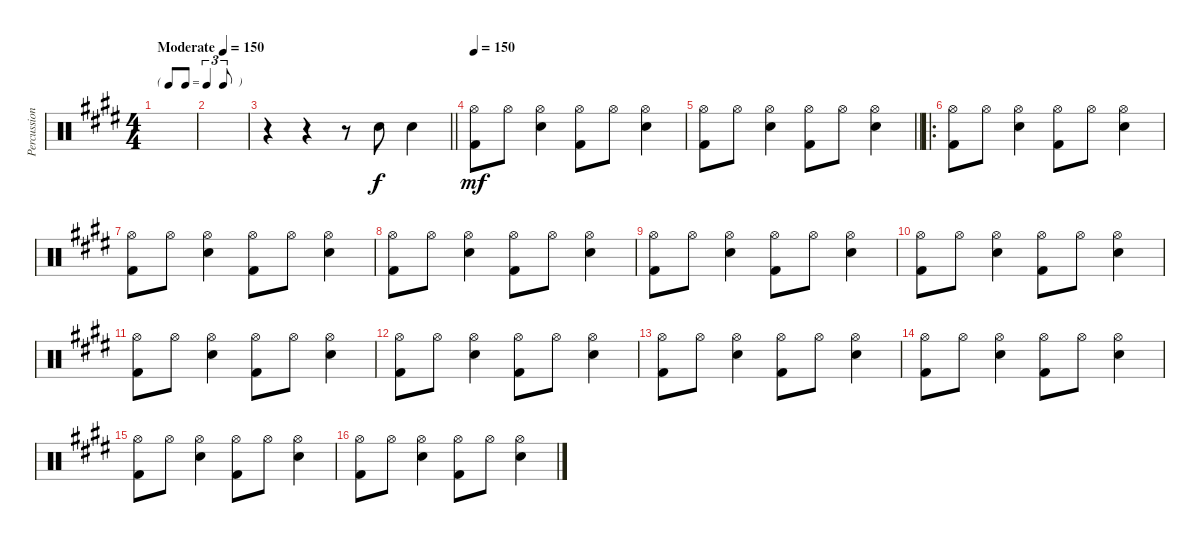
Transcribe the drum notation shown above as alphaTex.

\track ("Percussion" "Percussion") {instrument percussion}
\staff {score}
\articulation defaults
\ts (4 4)
\tf triplet8th
\tempo (150 "Moderate")
\tempo 156
\tempo (150 "Moderate")
\clef neutral
\ks e
|
|
\barLineRight lightlight
r.4 r.4 r.8 "Snare (hit) 2".8 "Snare (hit) 2".4 |
\tempo 150
("Hi-Hat (open)" "Kick (hit) 2").8{dy mf} "Hi-Hat (open)".8 ("Hi-Hat (open)" "Snare (hit) 2").4 ("Hi-Hat (open)" "Kick (hit) 2").8 "Hi-Hat (open)".8 ("Hi-Hat (open)" "Snare (hit) 2").4 |
\barLineRight lightlight
("Hi-Hat (open)" "Kick (hit) 2").8 "Hi-Hat (open)".8 ("Hi-Hat (open)" "Snare (hit) 2").4 ("Hi-Hat (open)" "Kick (hit) 2").8 "Hi-Hat (open)".8 ("Hi-Hat (open)" "Snare (hit) 2").4 |
\ro
("Hi-Hat (open)" "Kick (hit) 2").8 "Hi-Hat (open)".8 ("Hi-Hat (open)" "Snare (hit) 2").4 ("Hi-Hat (open)" "Kick (hit) 2").8 "Hi-Hat (open)".8 ("Hi-Hat (open)" "Snare (hit) 2").4 |
("Hi-Hat (open)" "Kick (hit) 2").8 "Hi-Hat (open)".8 ("Hi-Hat (open)" "Snare (hit) 2").4 ("Hi-Hat (open)" "Kick (hit) 2").8 "Hi-Hat (open)".8 ("Hi-Hat (open)" "Snare (hit) 2").4 |
("Hi-Hat (open)" "Kick (hit) 2").8 "Hi-Hat (open)".8 ("Hi-Hat (open)" "Snare (hit) 2").4 ("Hi-Hat (open)" "Kick (hit) 2").8 "Hi-Hat (open)".8 ("Hi-Hat (open)" "Snare (hit) 2").4 |
("Hi-Hat (open)" "Kick (hit) 2").8 "Hi-Hat (open)".8 ("Hi-Hat (open)" "Snare (hit) 2").4 ("Hi-Hat (open)" "Kick (hit) 2").8 "Hi-Hat (open)".8 ("Hi-Hat (open)" "Snare (hit) 2").4 |
("Hi-Hat (open)" "Kick (hit) 2").8 "Hi-Hat (open)".8 ("Hi-Hat (open)" "Snare (hit) 2").4 ("Hi-Hat (open)" "Kick (hit) 2").8 "Hi-Hat (open)".8 ("Hi-Hat (open)" "Snare (hit) 2").4 |
("Hi-Hat (open)" "Kick (hit) 2").8 "Hi-Hat (open)".8 ("Hi-Hat (open)" "Snare (hit) 2").4 ("Hi-Hat (open)" "Kick (hit) 2").8 "Hi-Hat (open)".8 ("Hi-Hat (open)" "Snare (hit) 2").4 |
("Hi-Hat (open)" "Kick (hit) 2").8 "Hi-Hat (open)".8 ("Hi-Hat (open)" "Snare (hit) 2").4 ("Hi-Hat (open)" "Kick (hit) 2").8 "Hi-Hat (open)".8 ("Hi-Hat (open)" "Snare (hit) 2").4 |
("Hi-Hat (open)" "Kick (hit) 2").8 "Hi-Hat (open)".8 ("Hi-Hat (open)" "Snare (hit) 2").4 ("Hi-Hat (open)" "Kick (hit) 2").8 "Hi-Hat (open)".8 ("Hi-Hat (open)" "Snare (hit) 2").4 |
("Hi-Hat (open)" "Kick (hit) 2").8 "Hi-Hat (open)".8 ("Hi-Hat (open)" "Snare (hit) 2").4 ("Hi-Hat (open)" "Kick (hit) 2").8 "Hi-Hat (open)".8 ("Hi-Hat (open)" "Snare (hit) 2").4 |
("Hi-Hat (open)" "Kick (hit) 2").8 "Hi-Hat (open)".8 ("Hi-Hat (open)" "Snare (hit) 2").4 ("Hi-Hat (open)" "Kick (hit) 2").8 "Hi-Hat (open)".8 ("Hi-Hat (open)" "Snare (hit) 2").4 |
("Hi-Hat (open)" "Kick (hit) 2").8 "Hi-Hat (open)".8 ("Hi-Hat (open)" "Snare (hit) 2").4 ("Hi-Hat (open)" "Kick (hit) 2").8 "Hi-Hat (open)".8 ("Hi-Hat (open)" "Snare (hit) 2").4
